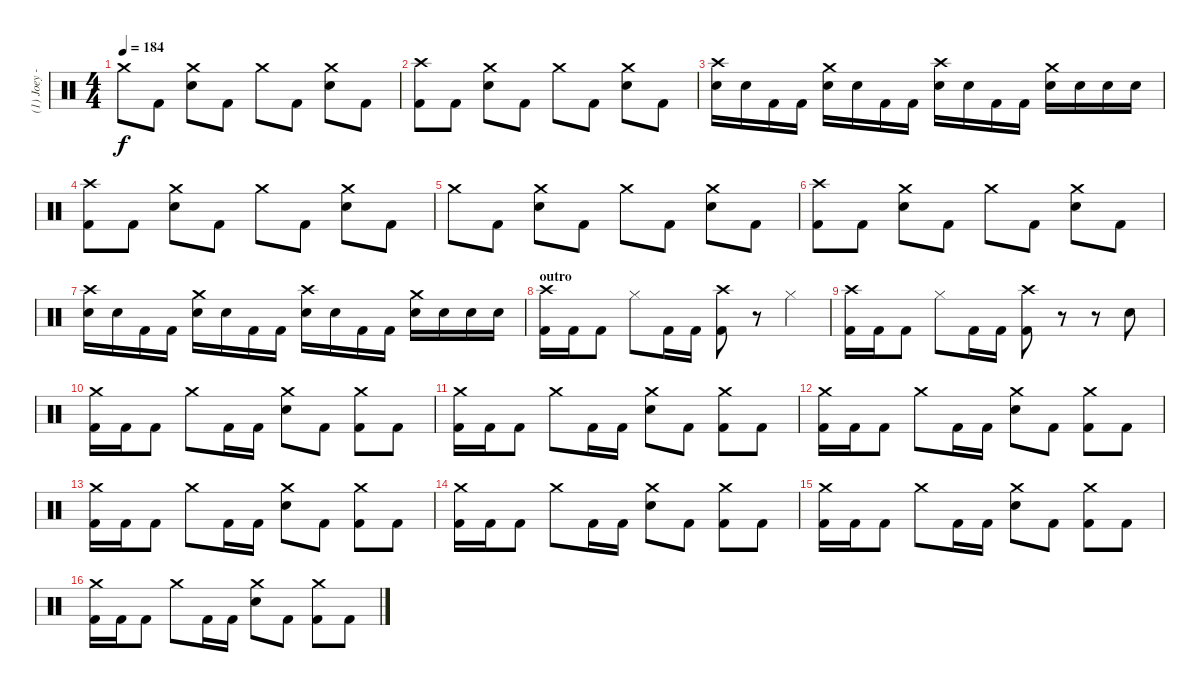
\track ("(1) Joey - drums" "(1) Joey -") {instrument percussion}
\staff {score}
\articulation defaults
\ts (4 4)
\tempo 184
\clef neutral
\ks c "Crash medium (hit)".8{dy f} "Kick (hit) 2".8
("Crash medium (hit)" "Electric Snare (hit)").8 "Kick (hit) 2".8 "Crash medium (hit)".8 "Kick (hit) 2".8 ("Crash medium (hit)" "Electric Snare (hit)").8 "Kick (hit) 2".8 |
("Crash high (hit)" "Kick (hit) 2").8 "Kick (hit) 2".8 ("Crash medium (hit)" "Electric Snare (hit)").8 "Kick (hit) 2".8 "Crash medium (hit)".8 "Kick (hit) 2".8 ("Crash medium (hit)" "Electric Snare (hit)").8 "Kick (hit) 2".8 |
("Crash high (hit)" "Electric Snare (hit)").16 "Electric Snare (hit)".16 "Kick (hit) 2".16 "Kick (hit) 2".16 ("Crash medium (hit)" "Electric Snare (hit)").16 "Electric Snare (hit)".16 "Kick (hit) 2".16 "Kick (hit) 2".16 ("Crash high (hit)" "Electric Snare (hit)").16 "Electric Snare (hit)".16 "Kick (hit) 2".16 "Kick (hit) 2".16 ("Crash medium (hit)" "Electric Snare (hit)").16 "Electric Snare (hit)".16 "Electric Snare (hit)".16 "Electric Snare (hit)".16 |
("Crash high (hit)" "Kick (hit) 2").8 "Kick (hit) 2".8 ("Crash medium (hit)" "Electric Snare (hit)").8 "Kick (hit) 2".8 "Crash medium (hit)".8 "Kick (hit) 2".8 ("Crash medium (hit)" "Electric Snare (hit)").8 "Kick (hit) 2".8 |
"Crash medium (hit)".8 "Kick (hit) 2".8 ("Crash medium (hit)" "Electric Snare (hit)").8 "Kick (hit) 2".8 "Crash medium (hit)".8 "Kick (hit) 2".8 ("Crash medium (hit)" "Electric Snare (hit)").8 "Kick (hit) 2".8 |
("Crash high (hit)" "Kick (hit) 2").8 "Kick (hit) 2".8 ("Crash medium (hit)" "Electric Snare (hit)").8 "Kick (hit) 2".8 "Crash medium (hit)".8 "Kick (hit) 2".8 ("Crash medium (hit)" "Electric Snare (hit)").8 "Kick (hit) 2".8 |
("Crash high (hit)" "Electric Snare (hit)").16 "Electric Snare (hit)".16 "Kick (hit) 2".16 "Kick (hit) 2".16 ("Crash medium (hit)" "Electric Snare (hit)").16 "Electric Snare (hit)".16 "Kick (hit) 2".16 "Kick (hit) 2".16 ("Crash high (hit)" "Electric Snare (hit)").16 "Electric Snare (hit)".16 "Kick (hit) 2".16 "Kick (hit) 2".16 ("Crash medium (hit)" "Electric Snare (hit)").16 "Electric Snare (hit)".16 "Electric Snare (hit)".16 "Electric Snare (hit)".16 |
\section ("" "outro")
("Crash high (hit)" "Kick (hit) 2").16 "Kick (hit) 2".16 "Kick (hit) 2".8 "Hi-Hat (closed)".8 "Kick (hit) 2".16 "Kick (hit) 2".16 ("Crash high (hit)" "Kick (hit) 2").8 r.8 "Hi-Hat (closed)".4 |
("Crash high (hit)" "Kick (hit) 2").16 "Kick (hit) 2".16 "Kick (hit) 2".8 "Hi-Hat (closed)".8 "Kick (hit) 2".16 "Kick (hit) 2".16 ("Crash high (hit)" "Kick (hit) 2").8 r.8 r.8 "Electric Snare (hit)".8 |
("Crash medium (hit)" "Kick (hit) 2").16 "Kick (hit) 2".16 "Kick (hit) 2".8 "Crash medium (hit)".8 "Kick (hit) 2".16 "Kick (hit) 2".16 ("Crash medium (hit)" "Electric Snare (hit)").8 "Kick (hit) 2".8 ("Crash medium (hit)" "Kick (hit) 2").8 "Kick (hit) 2".8 |
("Crash medium (hit)" "Kick (hit) 2").16 "Kick (hit) 2".16 "Kick (hit) 2".8 "Crash medium (hit)".8 "Kick (hit) 2".16 "Kick (hit) 2".16 ("Crash medium (hit)" "Electric Snare (hit)").8 "Kick (hit) 2".8 ("Crash medium (hit)" "Kick (hit) 2").8 "Kick (hit) 2".8 |
("Crash medium (hit)" "Kick (hit) 2").16 "Kick (hit) 2".16 "Kick (hit) 2".8 "Crash medium (hit)".8 "Kick (hit) 2".16 "Kick (hit) 2".16 ("Crash medium (hit)" "Electric Snare (hit)").8 "Kick (hit) 2".8 ("Crash medium (hit)" "Kick (hit) 2").8 "Kick (hit) 2".8 |
("Crash medium (hit)" "Kick (hit) 2").16 "Kick (hit) 2".16 "Kick (hit) 2".8 "Crash medium (hit)".8 "Kick (hit) 2".16 "Kick (hit) 2".16 ("Crash medium (hit)" "Electric Snare (hit)").8 "Kick (hit) 2".8 ("Crash medium (hit)" "Kick (hit) 2").8 "Kick (hit) 2".8 |
("Crash medium (hit)" "Kick (hit) 2").16 "Kick (hit) 2".16 "Kick (hit) 2".8 "Crash medium (hit)".8 "Kick (hit) 2".16 "Kick (hit) 2".16 ("Crash medium (hit)" "Electric Snare (hit)").8 "Kick (hit) 2".8 ("Crash medium (hit)" "Kick (hit) 2").8 "Kick (hit) 2".8 |
("Crash medium (hit)" "Kick (hit) 2").16 "Kick (hit) 2".16 "Kick (hit) 2".8 "Crash medium (hit)".8 "Kick (hit) 2".16 "Kick (hit) 2".16 ("Crash medium (hit)" "Electric Snare (hit)").8 "Kick (hit) 2".8 ("Crash medium (hit)" "Kick (hit) 2").8 "Kick (hit) 2".8 |
("Crash medium (hit)" "Kick (hit) 2").16 "Kick (hit) 2".16 "Kick (hit) 2".8 "Crash medium (hit)".8 "Kick (hit) 2".16 "Kick (hit) 2".16 ("Crash medium (hit)" "Electric Snare (hit)").8 "Kick (hit) 2".8 ("Crash medium (hit)" "Kick (hit) 2").8 "Kick (hit) 2".8
